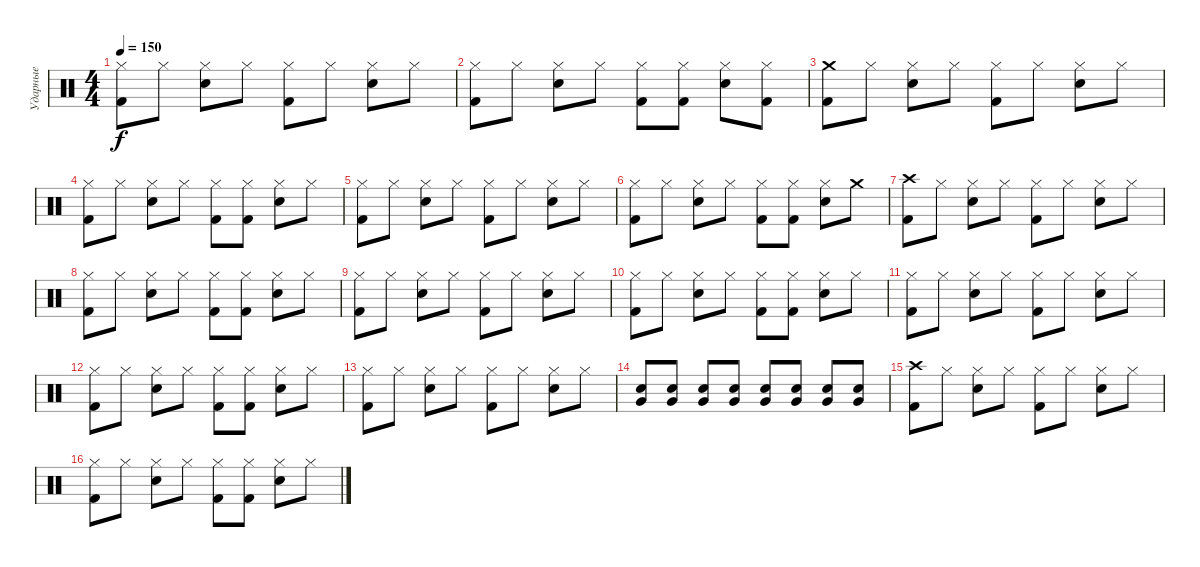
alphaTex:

\track ("Ударные" "Ударные") {instrument percussion}
\staff {score}
\articulation defaults
\ts (4 4)
\tempo 150
\clef neutral
\ks c
("Hi-Hat (closed)" "Kick (hit) 2").8{dy f} "Hi-Hat (closed)".8 ("Hi-Hat (closed)" "Snare (hit) 2").8 "Hi-Hat (closed)".8 ("Hi-Hat (closed)" "Kick (hit) 2").8 "Hi-Hat (closed)".8 ("Hi-Hat (closed)" "Snare (hit) 2").8 "Hi-Hat (closed)".8 |
("Hi-Hat (closed)" "Kick (hit) 2").8 "Hi-Hat (closed)".8 ("Hi-Hat (closed)" "Snare (hit) 2").8 "Hi-Hat (closed)".8 ("Hi-Hat (closed)" "Kick (hit) 2").8 ("Hi-Hat (closed)" "Kick (hit) 2").8 ("Hi-Hat (closed)" "Snare (hit) 2").8 ("Hi-Hat (closed)" "Kick (hit) 2").8 |
("Crash medium (hit)" "Kick (hit) 2").8 "Hi-Hat (closed)".8 ("Hi-Hat (closed)" "Snare (hit) 2").8 "Hi-Hat (closed)".8 ("Hi-Hat (closed)" "Kick (hit) 2").8 "Hi-Hat (closed)".8 ("Hi-Hat (closed)" "Snare (hit) 2").8 "Hi-Hat (closed)".8 |
("Hi-Hat (closed)" "Kick (hit) 2").8 "Hi-Hat (closed)".8 ("Hi-Hat (closed)" "Snare (hit) 2").8 "Hi-Hat (closed)".8 ("Hi-Hat (closed)" "Kick (hit) 2").8 ("Hi-Hat (closed)" "Kick (hit) 2").8 ("Hi-Hat (closed)" "Snare (hit) 2").8 "Hi-Hat (closed)".8 |
("Hi-Hat (closed)" "Kick (hit) 2").8 "Hi-Hat (closed)".8 ("Hi-Hat (closed)" "Snare (hit) 2").8 "Hi-Hat (closed)".8 ("Hi-Hat (closed)" "Kick (hit) 2").8 "Hi-Hat (closed)".8 ("Hi-Hat (closed)" "Snare (hit) 2").8 "Hi-Hat (closed)".8 |
("Hi-Hat (closed)" "Kick (hit) 2").8 "Hi-Hat (closed)".8 ("Hi-Hat (closed)" "Snare (hit) 2").8 "Hi-Hat (closed)".8 ("Hi-Hat (closed)" "Kick (hit) 2").8 ("Hi-Hat (closed)" "Kick (hit) 2").8 ("Hi-Hat (closed)" "Snare (hit) 2").8 "Crash medium (hit)".8 |
("Crash high (hit)" "Kick (hit) 2").8 "Hi-Hat (closed)".8 ("Hi-Hat (closed)" "Snare (hit) 2").8 "Hi-Hat (closed)".8 ("Hi-Hat (closed)" "Kick (hit) 2").8 "Hi-Hat (closed)".8 ("Hi-Hat (closed)" "Snare (hit) 2").8 "Hi-Hat (closed)".8 |
("Hi-Hat (closed)" "Kick (hit) 2").8 "Hi-Hat (closed)".8 ("Hi-Hat (closed)" "Snare (hit) 2").8 "Hi-Hat (closed)".8 ("Hi-Hat (closed)" "Kick (hit) 2").8 ("Hi-Hat (closed)" "Kick (hit) 2").8 ("Hi-Hat (closed)" "Snare (hit) 2").8 "Hi-Hat (closed)".8 |
("Hi-Hat (closed)" "Kick (hit) 2").8 "Hi-Hat (closed)".8 ("Hi-Hat (closed)" "Snare (hit) 2").8 "Hi-Hat (closed)".8 ("Hi-Hat (closed)" "Kick (hit) 2").8 "Hi-Hat (closed)".8 ("Hi-Hat (closed)" "Snare (hit) 2").8 "Hi-Hat (closed)".8 |
("Hi-Hat (closed)" "Kick (hit) 2").8 "Hi-Hat (closed)".8 ("Hi-Hat (closed)" "Snare (hit) 2").8 "Hi-Hat (closed)".8 ("Hi-Hat (closed)" "Kick (hit) 2").8 ("Hi-Hat (closed)" "Kick (hit) 2").8 ("Hi-Hat (closed)" "Snare (hit) 2").8 "Hi-Hat (closed)".8 |
("Hi-Hat (closed)" "Kick (hit) 2").8 "Hi-Hat (closed)".8 ("Hi-Hat (closed)" "Snare (hit) 2").8 "Hi-Hat (closed)".8 ("Hi-Hat (closed)" "Kick (hit) 2").8 "Hi-Hat (closed)".8 ("Hi-Hat (closed)" "Snare (hit) 2").8 "Hi-Hat (closed)".8 |
("Hi-Hat (closed)" "Kick (hit) 2").8 "Hi-Hat (closed)".8 ("Hi-Hat (closed)" "Snare (hit) 2").8 "Hi-Hat (closed)".8 ("Hi-Hat (closed)" "Kick (hit) 2").8 ("Hi-Hat (closed)" "Kick (hit) 2").8 ("Hi-Hat (closed)" "Snare (hit) 2").8 "Hi-Hat (closed)".8 |
("Hi-Hat (closed)" "Kick (hit) 2").8 "Hi-Hat (closed)".8 ("Hi-Hat (closed)" "Snare (hit) 2").8 "Hi-Hat (closed)".8 ("Hi-Hat (closed)" "Kick (hit) 2").8 "Hi-Hat (closed)".8 ("Hi-Hat (closed)" "Snare (hit) 2").8 "Hi-Hat (closed)".8 |
("Very Low Tom (hit)" "Snare (hit) 2").8 ("Very Low Tom (hit)" "Snare (hit) 2").8 ("Very Low Tom (hit)" "Snare (hit) 2").8 ("Very Low Tom (hit)" "Snare (hit) 2").8 ("Very Low Tom (hit)" "Snare (hit) 2").8 ("Very Low Tom (hit)" "Snare (hit) 2").8 ("Very Low Tom (hit)" "Snare (hit) 2").8 ("Very Low Tom (hit)" "Snare (hit) 2").8 |
("Crash high (hit)" "Kick (hit) 2").8 "Hi-Hat (closed)".8 ("Hi-Hat (closed)" "Snare (hit) 2").8 "Hi-Hat (closed)".8 ("Hi-Hat (closed)" "Kick (hit) 2").8 "Hi-Hat (closed)".8 ("Hi-Hat (closed)" "Snare (hit) 2").8 "Hi-Hat (closed)".8 |
("Hi-Hat (closed)" "Kick (hit) 2").8 "Hi-Hat (closed)".8 ("Hi-Hat (closed)" "Snare (hit) 2").8 "Hi-Hat (closed)".8 ("Hi-Hat (closed)" "Kick (hit) 2").8 ("Hi-Hat (closed)" "Kick (hit) 2").8 ("Hi-Hat (closed)" "Snare (hit) 2").8 "Hi-Hat (closed)".8
